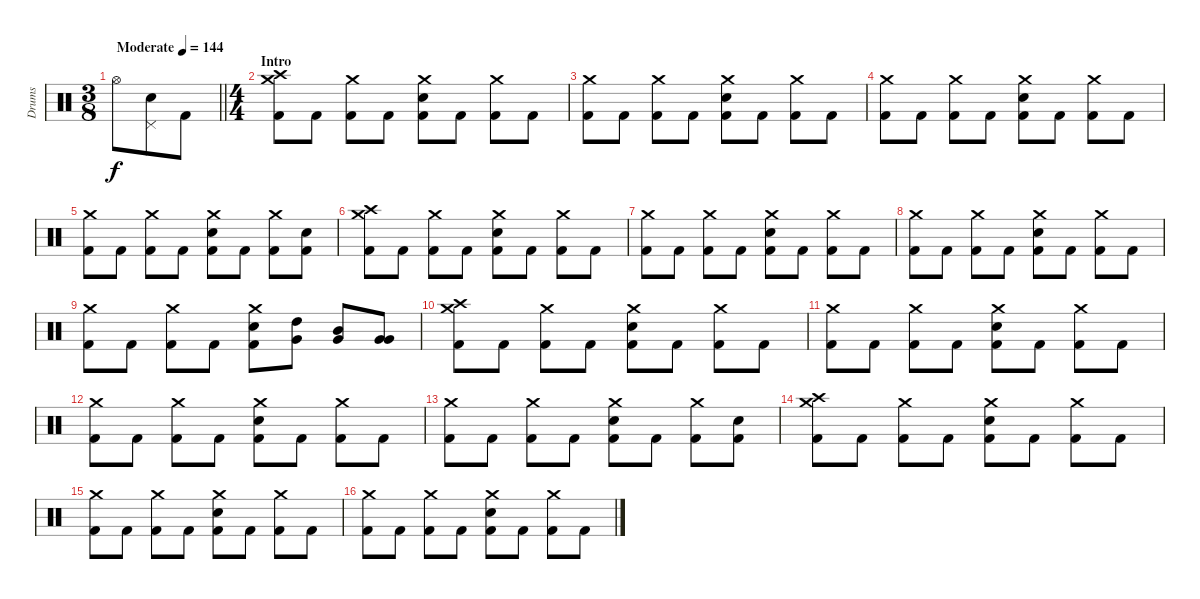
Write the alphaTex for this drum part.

\track ("Drums" "Drums") {instrument percussion}
\staff {score}
\articulation defaults
\ts (3 8)
\tempo (144 "Moderate")
\clef neutral
\barLineRight lightlight
\ks c "Hi-Hat (open)".8{dy f}
("Pedal Hi-Hat (hit)" "Electric Snare (hit)").8 "Kick (hit) 2".8 |
\ts (4 4)
\section ("" "Intro")
("Crash high (hit)" "Crash medium (hit)" "Kick (hit) 2").8 "Kick (hit) 2".8 ("Crash medium (hit)" "Kick (hit) 2").8 "Kick (hit) 2".8 ("Crash medium (hit)" "Electric Snare (hit)" "Kick (hit) 2").8 "Kick (hit) 2".8 ("Crash medium (hit)" "Kick (hit) 2").8 "Kick (hit) 2".8 |
("Crash medium (hit)" "Kick (hit) 2").8 "Kick (hit) 2".8 ("Crash medium (hit)" "Kick (hit) 2").8 "Kick (hit) 2".8 ("Crash medium (hit)" "Electric Snare (hit)" "Kick (hit) 2").8 "Kick (hit) 2".8 ("Crash medium (hit)" "Kick (hit) 2").8 "Kick (hit) 2".8 |
("Crash medium (hit)" "Kick (hit) 2").8 "Kick (hit) 2".8 ("Crash medium (hit)" "Kick (hit) 2").8 "Kick (hit) 2".8 ("Crash medium (hit)" "Electric Snare (hit)" "Kick (hit) 2").8 "Kick (hit) 2".8 ("Crash medium (hit)" "Kick (hit) 2").8 "Kick (hit) 2".8 |
("Crash medium (hit)" "Kick (hit) 2").8 "Kick (hit) 2".8 ("Crash medium (hit)" "Kick (hit) 2").8 "Kick (hit) 2".8 ("Crash medium (hit)" "Electric Snare (hit)" "Kick (hit) 2").8 "Kick (hit) 2".8 ("Crash medium (hit)" "Kick (hit) 2").8 ("Electric Snare (hit)" "Kick (hit) 2").8 |
("Crash high (hit)" "Crash medium (hit)" "Kick (hit) 2").8 "Kick (hit) 2".8 ("Crash medium (hit)" "Kick (hit) 2").8 "Kick (hit) 2".8 ("Crash medium (hit)" "Electric Snare (hit)" "Kick (hit) 2").8 "Kick (hit) 2".8 ("Crash medium (hit)" "Kick (hit) 2").8 "Kick (hit) 2".8 |
("Crash medium (hit)" "Kick (hit) 2").8 "Kick (hit) 2".8 ("Crash medium (hit)" "Kick (hit) 2").8 "Kick (hit) 2".8 ("Crash medium (hit)" "Electric Snare (hit)" "Kick (hit) 2").8 "Kick (hit) 2".8 ("Crash medium (hit)" "Kick (hit) 2").8 "Kick (hit) 2".8 |
("Crash medium (hit)" "Kick (hit) 2").8 "Kick (hit) 2".8 ("Crash medium (hit)" "Kick (hit) 2").8 "Kick (hit) 2".8 ("Crash medium (hit)" "Electric Snare (hit)" "Kick (hit) 2").8 "Kick (hit) 2".8 ("Crash medium (hit)" "Kick (hit) 2").8 "Kick (hit) 2".8 |
("Crash medium (hit)" "Kick (hit) 2").8 "Kick (hit) 2".8 ("Crash medium (hit)" "Kick (hit) 2").8 "Kick (hit) 2".8 ("Crash medium (hit)" "Electric Snare (hit)" "Kick (hit) 2").8 ("High Tom (hit)" "Very Low Tom (hit)").8 ("Mid Tom (hit)" "Very Low Tom (hit)").8 ("Very Low Tom (hit)" "Very Low Tom (hit)").8 |
("Crash high (hit)" "Crash medium (hit)" "Kick (hit) 2").8 "Kick (hit) 2".8 ("Crash medium (hit)" "Kick (hit) 2").8 "Kick (hit) 2".8 ("Crash medium (hit)" "Electric Snare (hit)" "Kick (hit) 2").8 "Kick (hit) 2".8 ("Crash medium (hit)" "Kick (hit) 2").8 "Kick (hit) 2".8 |
("Crash medium (hit)" "Kick (hit) 2").8 "Kick (hit) 2".8 ("Crash medium (hit)" "Kick (hit) 2").8 "Kick (hit) 2".8 ("Crash medium (hit)" "Electric Snare (hit)" "Kick (hit) 2").8 "Kick (hit) 2".8 ("Crash medium (hit)" "Kick (hit) 2").8 "Kick (hit) 2".8 |
("Crash medium (hit)" "Kick (hit) 2").8 "Kick (hit) 2".8 ("Crash medium (hit)" "Kick (hit) 2").8 "Kick (hit) 2".8 ("Crash medium (hit)" "Electric Snare (hit)" "Kick (hit) 2").8 "Kick (hit) 2".8 ("Crash medium (hit)" "Kick (hit) 2").8 "Kick (hit) 2".8 |
("Crash medium (hit)" "Kick (hit) 2").8 "Kick (hit) 2".8 ("Crash medium (hit)" "Kick (hit) 2").8 "Kick (hit) 2".8 ("Crash medium (hit)" "Electric Snare (hit)" "Kick (hit) 2").8 "Kick (hit) 2".8 ("Crash medium (hit)" "Kick (hit) 2").8 ("Electric Snare (hit)" "Kick (hit) 2").8 |
("Crash high (hit)" "Crash medium (hit)" "Kick (hit) 2").8 "Kick (hit) 2".8 ("Crash medium (hit)" "Kick (hit) 2").8 "Kick (hit) 2".8 ("Crash medium (hit)" "Electric Snare (hit)" "Kick (hit) 2").8 "Kick (hit) 2".8 ("Crash medium (hit)" "Kick (hit) 2").8 "Kick (hit) 2".8 |
("Crash medium (hit)" "Kick (hit) 2").8 "Kick (hit) 2".8 ("Crash medium (hit)" "Kick (hit) 2").8 "Kick (hit) 2".8 ("Crash medium (hit)" "Electric Snare (hit)" "Kick (hit) 2").8 "Kick (hit) 2".8 ("Crash medium (hit)" "Kick (hit) 2").8 "Kick (hit) 2".8 |
("Crash medium (hit)" "Kick (hit) 2").8 "Kick (hit) 2".8 ("Crash medium (hit)" "Kick (hit) 2").8 "Kick (hit) 2".8 ("Crash medium (hit)" "Electric Snare (hit)" "Kick (hit) 2").8 "Kick (hit) 2".8 ("Crash medium (hit)" "Kick (hit) 2").8 "Kick (hit) 2".8
